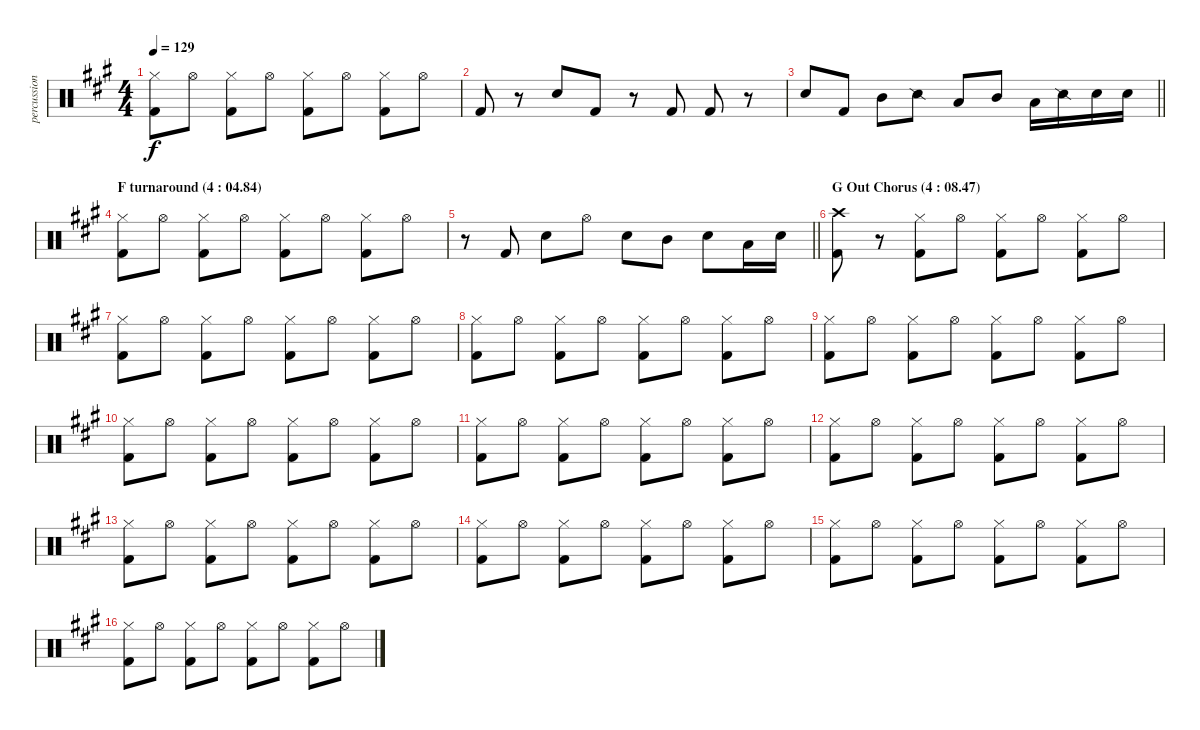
\track ("percussion" "percussion") {instrument percussion}
\staff {score}
\articulation defaults
\ts (4 4)
\tempo 129
\clef neutral
\ks a
("Hi-Hat (closed)" "Kick (hit) 2").8{dy f} "Hi-Hat (open)".8 ("Hi-Hat (closed)" "Kick (hit) 2").8 "Hi-Hat (open)".8 ("Hi-Hat (closed)" "Kick (hit) 2").8 "Hi-Hat (open)".8 ("Hi-Hat (closed)" "Kick (hit) 2").8 "Hi-Hat (open)".8 |
"Kick (hit) 2".8 r.8 "Snare (hit) 2".8 "Kick (hit) 2".8 r.8 "Kick (hit) 2".8 "Kick (hit) 2".8 r.8 |
\barLineRight lightlight "Snare (hit) 2".8 "Kick (hit) 2".8 "Mid Tom (hit)".8 "Snare (side stick) 2".8 "Low Tom (hit)".8 "Mid Tom (hit)".8 "Low Tom (hit)".16 "Snare (side stick) 2".16 "Snare (hit) 2".16 "Snare (hit) 2".16
|
\section ("" "F turnaround (4 : 04.84)")
("Hi-Hat (closed)" "Kick (hit) 2").8 "Hi-Hat (open)".8 ("Hi-Hat (closed)" "Kick (hit) 2").8 "Hi-Hat (open)".8 ("Hi-Hat (closed)" "Kick (hit) 2").8 "Hi-Hat (open)".8 ("Hi-Hat (closed)" "Kick (hit) 2").8 "Hi-Hat (open)".8 |
\barLineRight lightlight
r.8 "Kick (hit) 2".8 "Snare (hit) 2".8 "Hi-Hat (open)".8 "Snare (hit) 2".8 "Mid Tom (hit)".8 "Snare (hit) 2".8 "Low Tom (hit)".16 "Snare (hit) 2".16 |
\section ("" "G Out Chorus (4 : 08.47)")
("Crash high (hit)" "Kick (hit) 2").8 r.8 ("Hi-Hat (closed)" "Kick (hit) 2").8 "Hi-Hat (open)".8 ("Hi-Hat (closed)" "Kick (hit) 2").8 "Hi-Hat (open)".8 ("Hi-Hat (closed)" "Kick (hit) 2").8 "Hi-Hat (open)".8 |
("Hi-Hat (closed)" "Kick (hit) 2").8 "Hi-Hat (open)".8 ("Hi-Hat (closed)" "Kick (hit) 2").8 "Hi-Hat (open)".8 ("Hi-Hat (closed)" "Kick (hit) 2").8 "Hi-Hat (open)".8 ("Hi-Hat (closed)" "Kick (hit) 2").8 "Hi-Hat (open)".8 |
("Hi-Hat (closed)" "Kick (hit) 2").8 "Hi-Hat (open)".8 ("Hi-Hat (closed)" "Kick (hit) 2").8 "Hi-Hat (open)".8 ("Hi-Hat (closed)" "Kick (hit) 2").8 "Hi-Hat (open)".8 ("Hi-Hat (closed)" "Kick (hit) 2").8 "Hi-Hat (open)".8 |
("Hi-Hat (closed)" "Kick (hit) 2").8 "Hi-Hat (open)".8 ("Hi-Hat (closed)" "Kick (hit) 2").8 "Hi-Hat (open)".8 ("Hi-Hat (closed)" "Kick (hit) 2").8 "Hi-Hat (open)".8 ("Hi-Hat (closed)" "Kick (hit) 2").8 "Hi-Hat (open)".8 |
("Hi-Hat (closed)" "Kick (hit) 2").8 "Hi-Hat (open)".8 ("Hi-Hat (closed)" "Kick (hit) 2").8 "Hi-Hat (open)".8 ("Hi-Hat (closed)" "Kick (hit) 2").8 "Hi-Hat (open)".8 ("Hi-Hat (closed)" "Kick (hit) 2").8 "Hi-Hat (open)".8 |
("Hi-Hat (closed)" "Kick (hit) 2").8 "Hi-Hat (open)".8 ("Hi-Hat (closed)" "Kick (hit) 2").8 "Hi-Hat (open)".8 ("Hi-Hat (closed)" "Kick (hit) 2").8 "Hi-Hat (open)".8 ("Hi-Hat (closed)" "Kick (hit) 2").8 "Hi-Hat (open)".8 |
("Hi-Hat (closed)" "Kick (hit) 2").8 "Hi-Hat (open)".8 ("Hi-Hat (closed)" "Kick (hit) 2").8 "Hi-Hat (open)".8 ("Hi-Hat (closed)" "Kick (hit) 2").8 "Hi-Hat (open)".8 ("Hi-Hat (closed)" "Kick (hit) 2").8 "Hi-Hat (open)".8 |
("Hi-Hat (closed)" "Kick (hit) 2").8 "Hi-Hat (open)".8 ("Hi-Hat (closed)" "Kick (hit) 2").8 "Hi-Hat (open)".8 ("Hi-Hat (closed)" "Kick (hit) 2").8 "Hi-Hat (open)".8 ("Hi-Hat (closed)" "Kick (hit) 2").8 "Hi-Hat (open)".8 |
("Hi-Hat (closed)" "Kick (hit) 2").8 "Hi-Hat (open)".8 ("Hi-Hat (closed)" "Kick (hit) 2").8 "Hi-Hat (open)".8 ("Hi-Hat (closed)" "Kick (hit) 2").8 "Hi-Hat (open)".8 ("Hi-Hat (closed)" "Kick (hit) 2").8 "Hi-Hat (open)".8 |
("Hi-Hat (closed)" "Kick (hit) 2").8 "Hi-Hat (open)".8 ("Hi-Hat (closed)" "Kick (hit) 2").8 "Hi-Hat (open)".8 ("Hi-Hat (closed)" "Kick (hit) 2").8 "Hi-Hat (open)".8 ("Hi-Hat (closed)" "Kick (hit) 2").8 "Hi-Hat (open)".8 |
("Hi-Hat (closed)" "Kick (hit) 2").8 "Hi-Hat (open)".8 ("Hi-Hat (closed)" "Kick (hit) 2").8 "Hi-Hat (open)".8 ("Hi-Hat (closed)" "Kick (hit) 2").8 "Hi-Hat (open)".8 ("Hi-Hat (closed)" "Kick (hit) 2").8 "Hi-Hat (open)".8
